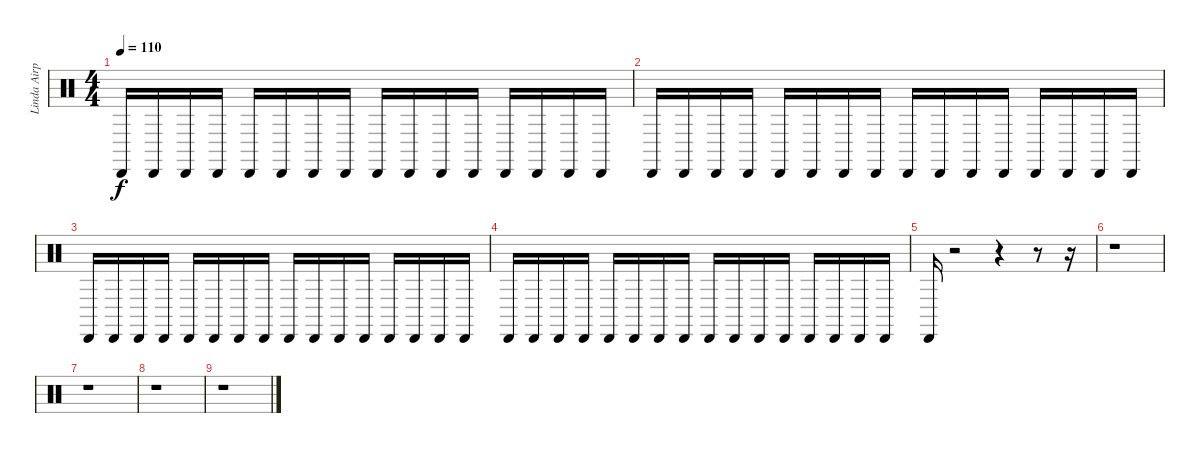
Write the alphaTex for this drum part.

\track ("Linda Airplane" "Linda Airp") {instrument percussion}
\staff {score}
\articulation defaults
\ts (4 4)
\tempo 110
\clef neutral
\ks c "Cabasa (hit)".16{dy f} "Cabasa (hit)".16 "Cabasa (hit)".16 "Cabasa (hit)".16 "Cabasa (hit)".16 "Cabasa (hit)".16 "Cabasa (hit)".16 "Cabasa (hit)".16 "Cabasa (hit)".16 "Cabasa (hit)".16 "Cabasa (hit)".16 "Cabasa (hit)".16 "Cabasa (hit)".16 "Cabasa (hit)".16 "Cabasa (hit)".16 "Cabasa (hit)".16
|
"Cabasa (hit)".16 "Cabasa (hit)".16 "Cabasa (hit)".16 "Cabasa (hit)".16 "Cabasa (hit)".16 "Cabasa (hit)".16 "Cabasa (hit)".16 "Cabasa (hit)".16 "Cabasa (hit)".16 "Cabasa (hit)".16 "Cabasa (hit)".16 "Cabasa (hit)".16 "Cabasa (hit)".16 "Cabasa (hit)".16 "Cabasa (hit)".16 "Cabasa (hit)".16 |
"Cabasa (hit)".16 "Cabasa (hit)".16 "Cabasa (hit)".16 "Cabasa (hit)".16 "Cabasa (hit)".16 "Cabasa (hit)".16 "Cabasa (hit)".16 "Cabasa (hit)".16 "Cabasa (hit)".16 "Cabasa (hit)".16 "Cabasa (hit)".16 "Cabasa (hit)".16 "Cabasa (hit)".16 "Cabasa (hit)".16 "Cabasa (hit)".16 "Cabasa (hit)".16 |
"Cabasa (hit)".16 "Cabasa (hit)".16 "Cabasa (hit)".16 "Cabasa (hit)".16 "Cabasa (hit)".16 "Cabasa (hit)".16 "Cabasa (hit)".16 "Cabasa (hit)".16 "Cabasa (hit)".16 "Cabasa (hit)".16 "Cabasa (hit)".16 "Cabasa (hit)".16 "Cabasa (hit)".16 "Cabasa (hit)".16 "Cabasa (hit)".16 "Cabasa (hit)".16 |
"Cabasa (hit)".16 r.2 r.4 r.8 r.16 |
r.1 |
r.1 |
r.1 |
r.1
